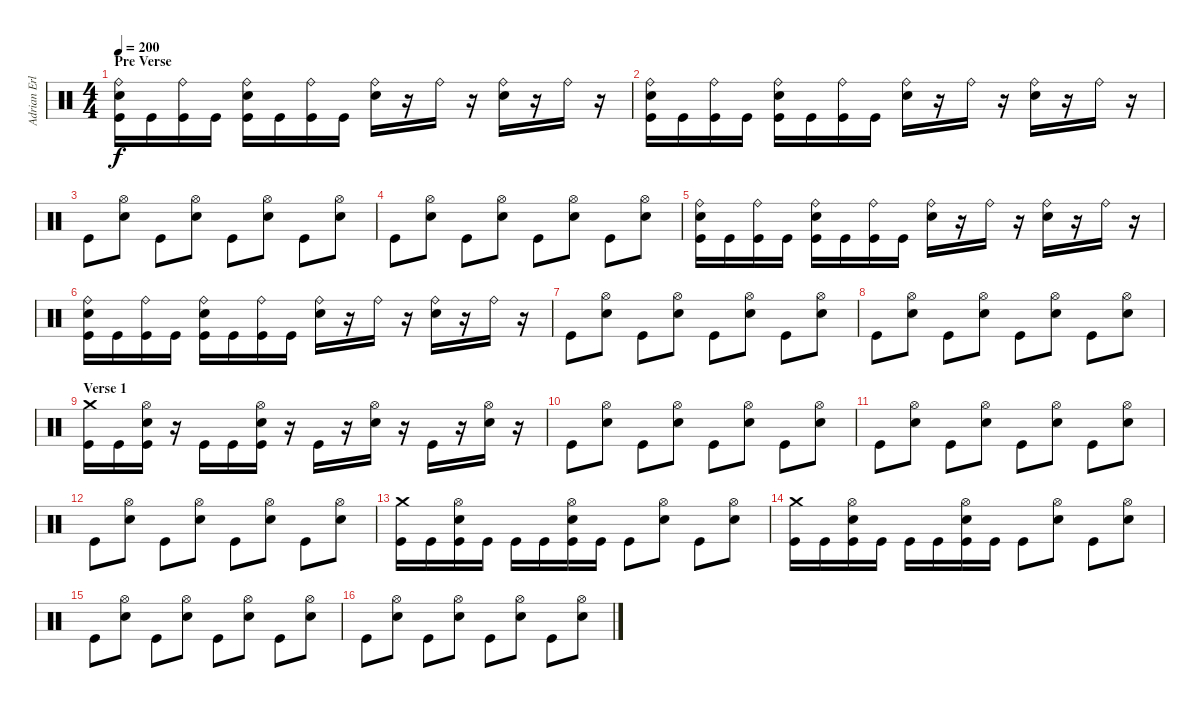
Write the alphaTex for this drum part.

\track ("Adrian Erlandsson" "Adrian Erl") {instrument percussion}
\staff {score}
\articulation defaults
\ts (4 4)
\section ("" "Pre Verse")
\tempo 200
\clef neutral
\ks c
("Ride (bell)" "Electric Snare (hit)" "Kick (hit)").16{dy f} "Kick (hit)".16 ("Ride (bell)" "Kick (hit)").16 "Kick (hit)".16 ("Ride (bell)" "Electric Snare (hit)" "Kick (hit)").16 "Kick (hit)".16 ("Ride (bell)" "Kick (hit)").16 "Kick (hit)".16 ("Ride (bell)" "Electric Snare (hit)").16 r.16 "Ride (bell)".16 r.16 ("Ride (bell)" "Electric Snare (hit)").16 r.16 "Ride (bell)".16 r.16 |
("Ride (bell)" "Electric Snare (hit)" "Kick (hit)").16 "Kick (hit)".16 ("Ride (bell)" "Kick (hit)").16 "Kick (hit)".16 ("Ride (bell)" "Electric Snare (hit)" "Kick (hit)").16 "Kick (hit)".16 ("Ride (bell)" "Kick (hit)").16 "Kick (hit)".16 ("Ride (bell)" "Electric Snare (hit)").16 r.16 "Ride (bell)".16 r.16 ("Ride (bell)" "Electric Snare (hit)").16 r.16 "Ride (bell)".16 r.16 |
"Kick (hit)".8 ("Hi-Hat (open)" "Electric Snare (hit)").8 "Kick (hit)".8 ("Hi-Hat (open)" "Electric Snare (hit)").8 "Kick (hit)".8 ("Hi-Hat (open)" "Electric Snare (hit)").8 "Kick (hit)".8 ("Hi-Hat (open)" "Electric Snare (hit)").8 |
"Kick (hit)".8 ("Hi-Hat (open)" "Electric Snare (hit)").8 "Kick (hit)".8 ("Hi-Hat (open)" "Electric Snare (hit)").8 "Kick (hit)".8 ("Hi-Hat (open)" "Electric Snare (hit)").8 "Kick (hit)".8 ("Hi-Hat (open)" "Electric Snare (hit)").8 |
("Ride (bell)" "Electric Snare (hit)" "Kick (hit)").16 "Kick (hit)".16 ("Ride (bell)" "Kick (hit)").16 "Kick (hit)".16 ("Ride (bell)" "Electric Snare (hit)" "Kick (hit)").16 "Kick (hit)".16 ("Ride (bell)" "Kick (hit)").16 "Kick (hit)".16 ("Ride (bell)" "Electric Snare (hit)").16 r.16 "Ride (bell)".16 r.16 ("Ride (bell)" "Electric Snare (hit)").16 r.16 "Ride (bell)".16 r.16 |
("Ride (bell)" "Electric Snare (hit)" "Kick (hit)").16 "Kick (hit)".16 ("Ride (bell)" "Kick (hit)").16 "Kick (hit)".16 ("Ride (bell)" "Electric Snare (hit)" "Kick (hit)").16 "Kick (hit)".16 ("Ride (bell)" "Kick (hit)").16 "Kick (hit)".16 ("Ride (bell)" "Electric Snare (hit)").16 r.16 "Ride (bell)".16 r.16 ("Ride (bell)" "Electric Snare (hit)").16 r.16 "Ride (bell)".16 r.16 |
"Kick (hit)".8 ("Hi-Hat (open)" "Electric Snare (hit)").8 "Kick (hit)".8 ("Hi-Hat (open)" "Electric Snare (hit)").8 "Kick (hit)".8 ("Hi-Hat (open)" "Electric Snare (hit)").8 "Kick (hit)".8 ("Hi-Hat (open)" "Electric Snare (hit)").8 |
"Kick (hit)".8 ("Hi-Hat (open)" "Electric Snare (hit)").8 "Kick (hit)".8 ("Hi-Hat (open)" "Electric Snare (hit)").8 "Kick (hit)".8 ("Hi-Hat (open)" "Electric Snare (hit)").8 "Kick (hit)".8 ("Hi-Hat (open)" "Electric Snare (hit)").8 |
\section ("" "Verse 1")
("Crash medium (hit)" "Kick (hit)").16 "Kick (hit)".16 ("Hi-Hat (open)" "Electric Snare (hit)" "Kick (hit)").16 r.16 "Kick (hit)".16 "Kick (hit)".16 ("Hi-Hat (open)" "Electric Snare (hit)" "Kick (hit)").16 r.16 "Kick (hit)".16 r.16 ("Hi-Hat (open)" "Electric Snare (hit)").16 r.16 "Kick (hit)".16 r.16 ("Hi-Hat (open)" "Electric Snare (hit)").16 r.16 |
"Kick (hit)".8 ("Hi-Hat (open)" "Electric Snare (hit)").8 "Kick (hit)".8 ("Hi-Hat (open)" "Electric Snare (hit)").8 "Kick (hit)".8 ("Hi-Hat (open)" "Electric Snare (hit)").8 "Kick (hit)".8 ("Hi-Hat (open)" "Electric Snare (hit)").8 |
"Kick (hit)".8 ("Hi-Hat (open)" "Electric Snare (hit)").8 "Kick (hit)".8 ("Hi-Hat (open)" "Electric Snare (hit)").8 "Kick (hit)".8 ("Hi-Hat (open)" "Electric Snare (hit)").8 "Kick (hit)".8 ("Hi-Hat (open)" "Electric Snare (hit)").8 |
"Kick (hit)".8 ("Hi-Hat (open)" "Electric Snare (hit)").8 "Kick (hit)".8 ("Hi-Hat (open)" "Electric Snare (hit)").8 "Kick (hit)".8 ("Hi-Hat (open)" "Electric Snare (hit)").8 "Kick (hit)".8 ("Hi-Hat (open)" "Electric Snare (hit)").8 |
("Crash medium (hit)" "Kick (hit)").16 "Kick (hit)".16 ("Hi-Hat (open)" "Electric Snare (hit)" "Kick (hit)").16 "Kick (hit)".16 "Kick (hit)".16 "Kick (hit)".16 ("Hi-Hat (open)" "Electric Snare (hit)" "Kick (hit)").16 "Kick (hit)".16 "Kick (hit)".8 ("Hi-Hat (open)" "Electric Snare (hit)").8 "Kick (hit)".8 ("Hi-Hat (open)" "Electric Snare (hit)").8 |
("Crash medium (hit)" "Kick (hit)").16 "Kick (hit)".16 ("Hi-Hat (open)" "Electric Snare (hit)" "Kick (hit)").16 "Kick (hit)".16 "Kick (hit)".16 "Kick (hit)".16 ("Hi-Hat (open)" "Electric Snare (hit)" "Kick (hit)").16 "Kick (hit)".16 "Kick (hit)".8 ("Hi-Hat (open)" "Electric Snare (hit)").8 "Kick (hit)".8 ("Hi-Hat (open)" "Electric Snare (hit)").8 |
"Kick (hit)".8 ("Hi-Hat (open)" "Electric Snare (hit)").8 "Kick (hit)".8 ("Hi-Hat (open)" "Electric Snare (hit)").8 "Kick (hit)".8 ("Hi-Hat (open)" "Electric Snare (hit)").8 "Kick (hit)".8 ("Hi-Hat (open)" "Electric Snare (hit)").8 |
"Kick (hit)".8 ("Hi-Hat (open)" "Electric Snare (hit)").8 "Kick (hit)".8 ("Hi-Hat (open)" "Electric Snare (hit)").8 "Kick (hit)".8 ("Hi-Hat (open)" "Electric Snare (hit)").8 "Kick (hit)".8 ("Hi-Hat (open)" "Electric Snare (hit)").8
